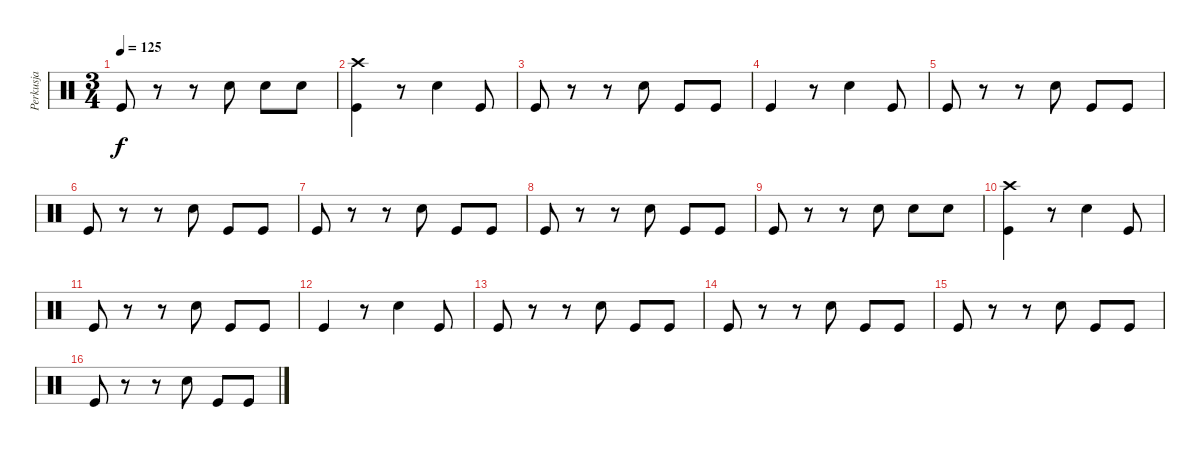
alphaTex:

\track ("Perkusja" "Perkusja") {instrument percussion}
\staff {score}
\articulation defaults
\ts (3 4)
\tempo 125
\clef neutral
\ks c "Kick (hit)".8{dy f}
r.8 r.8 "Electric Snare (hit)".8 "Snare (hit) 2".8 "Snare (hit) 2".8 |
("Crash high (hit)" "Kick (hit)").4 r.8 "Electric Snare (hit)".4 "Kick (hit)".8 |
"Kick (hit)".8 r.8 r.8 "Electric Snare (hit)".8 "Kick (hit)".8 "Kick (hit)".8 |
"Kick (hit)".4 r.8 "Electric Snare (hit)".4 "Kick (hit)".8 |
"Kick (hit)".8 r.8 r.8 "Electric Snare (hit)".8 "Kick (hit)".8 "Kick (hit)".8 |
"Kick (hit)".8 r.8 r.8 "Electric Snare (hit)".8 "Kick (hit)".8 "Kick (hit)".8 |
"Kick (hit)".8 r.8 r.8 "Electric Snare (hit)".8 "Kick (hit)".8 "Kick (hit)".8 |
"Kick (hit)".8 r.8 r.8 "Electric Snare (hit)".8 "Kick (hit)".8 "Kick (hit)".8 |
"Kick (hit)".8 r.8 r.8 "Electric Snare (hit)".8 "Snare (hit) 2".8 "Snare (hit) 2".8 |
("Crash high (hit)" "Kick (hit)").4 r.8 "Electric Snare (hit)".4 "Kick (hit)".8 |
"Kick (hit)".8 r.8 r.8 "Electric Snare (hit)".8 "Kick (hit)".8 "Kick (hit)".8 |
"Kick (hit)".4 r.8 "Electric Snare (hit)".4 "Kick (hit)".8 |
"Kick (hit)".8 r.8 r.8 "Electric Snare (hit)".8 "Kick (hit)".8 "Kick (hit)".8 |
"Kick (hit)".8 r.8 r.8 "Electric Snare (hit)".8 "Kick (hit)".8 "Kick (hit)".8 |
"Kick (hit)".8 r.8 r.8 "Electric Snare (hit)".8 "Kick (hit)".8 "Kick (hit)".8 |
"Kick (hit)".8 r.8 r.8 "Electric Snare (hit)".8 "Kick (hit)".8 "Kick (hit)".8
